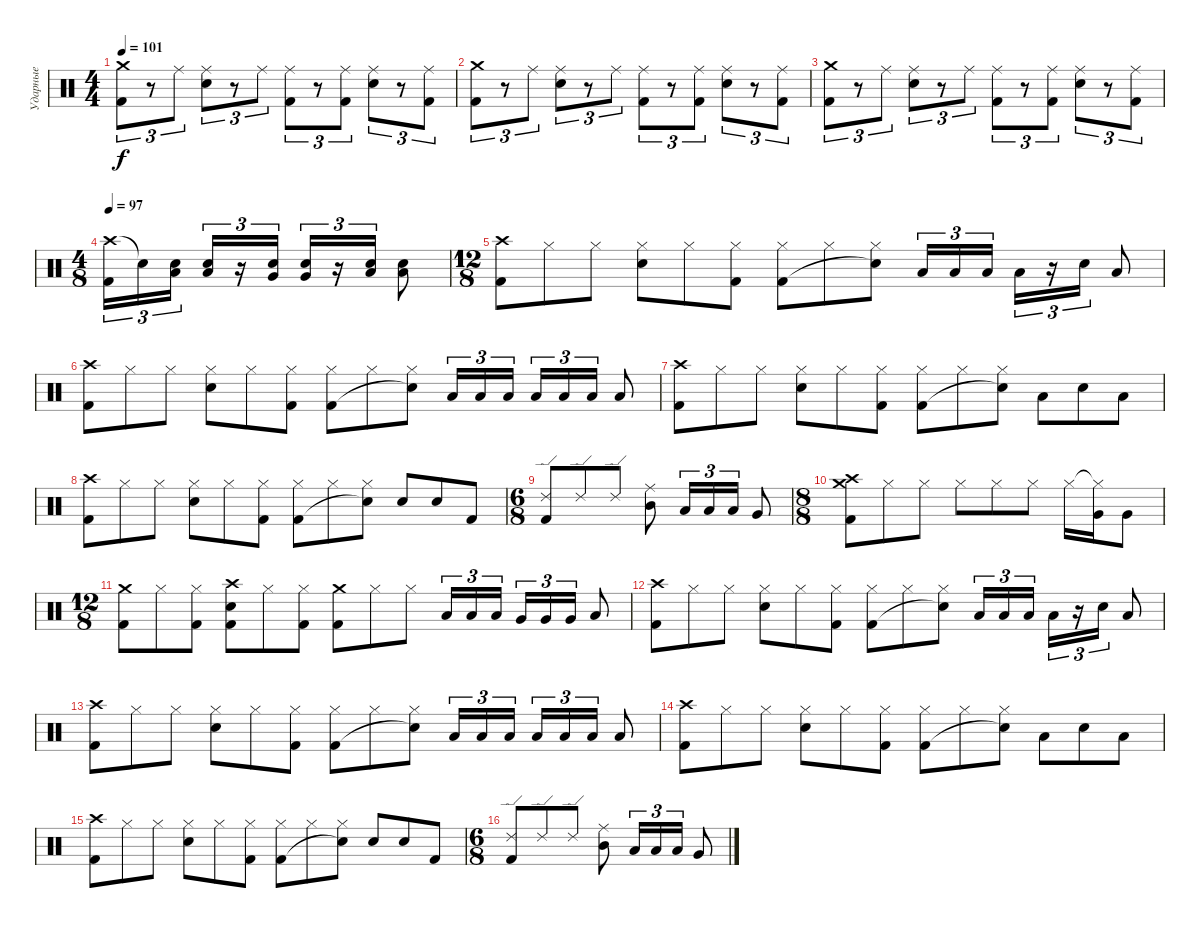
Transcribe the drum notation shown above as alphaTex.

\track ("Ударные" "Ударные") {instrument percussion}
\staff {score}
\articulation defaults
\ts (4 4)
\tempo 101
\clef neutral
\ks c
("Crash medium (hit)" "Kick (hit) 2").8{tu (3 2) dy f} r.8{tu (3 2)} "Ride (middle)".8{tu (3 2)} ("Ride (middle)" "Snare (hit) 2").8{tu (3 2)} r.8{tu (3 2)} "Ride (middle)".8{tu (3 2)} ("Ride (middle)" "Kick (hit) 2").8{tu (3 2)} r.8{tu (3 2)} ("Ride (middle)" "Kick (hit) 2").8{tu (3 2)} ("Ride (middle)" "Snare (hit) 2").8{tu (3 2)} r.8{tu (3 2)} ("Ride (middle)" "Kick (hit) 2").8{tu (3 2)} |
("Crash medium (hit)" "Kick (hit) 2").8{tu (3 2)} r.8{tu (3 2)} "Ride (middle)".8{tu (3 2)} ("Ride (middle)" "Snare (hit) 2").8{tu (3 2)} r.8{tu (3 2)} "Ride (middle)".8{tu (3 2)} ("Ride (middle)" "Kick (hit) 2").8{tu (3 2)} r.8{tu (3 2)} ("Ride (middle)" "Kick (hit) 2").8{tu (3 2)} ("Ride (middle)" "Snare (hit) 2").8{tu (3 2)} r.8{tu (3 2)} ("Ride (middle)" "Kick (hit) 2").8{tu (3 2)} |
("Crash medium (hit)" "Kick (hit) 2").8{tu (3 2)} r.8{tu (3 2)} "Ride (middle)".8{tu (3 2)} ("Ride (middle)" "Snare (hit) 2").8{tu (3 2)} r.8{tu (3 2)} "Ride (middle)".8{tu (3 2)} ("Ride (middle)" "Kick (hit) 2").8{tu (3 2)} r.8{tu (3 2)} ("Ride (middle)" "Kick (hit) 2").8{tu (3 2)} ("Ride (middle)" "Snare (hit) 2").8{tu (3 2)} r.8{tu (3 2)} ("Ride (middle)" "Kick (hit) 2").8{tu (3 2)} |
\ts (4 8)
\tempo 97
("Crash high (hit)" "Kick (hit) 2").16{tu (3 2)} "Snare (hit)"{t}.16{tu (3 2)} ("Low Tom (hit)" "Snare (hit) 2").16{tu (3 2)} ("Low Tom (hit)" "Snare (hit) 2").16{tu (3 2)} r.16{tu (3 2)} ("Very Low Tom (hit)" "Snare (hit) 2").16{tu (3 2)} ("Very Low Tom (hit)" "Snare (hit) 2").16{tu (3 2)} r.16{tu (3 2)} ("Low Floor Tom (hit)" "Snare (hit) 2").16{tu (3 2)} ("Low Floor Tom (hit)" "Snare (hit) 2").8 |
\ts (12 8)
("Crash high (hit)" "Kick (hit) 2").8 "Hi-Hat (closed)".8 "Hi-Hat (closed)".8 ("Hi-Hat (closed)" "Snare (hit) 2").8 "Hi-Hat (closed)".8 ("Hi-Hat (closed)" "Kick (hit) 2").8 ("Hi-Hat (closed)" "Kick (hit) 2").8 "Hi-Hat (closed)".8 ("Hi-Hat (closed)" "Snare (hit)"{t}).8 "Low Tom (hit)".16{tu (3 2)} "Low Tom (hit)".16{tu (3 2)} "Low Tom (hit)".16{tu (3 2)} "Low Tom (hit)".16{tu (3 2)} r.16{tu (3 2)} "Snare (hit) 2".16{tu (3 2)} "Low Tom (hit)".8 |
("Crash high (hit)" "Kick (hit) 2").8 "Hi-Hat (closed)".8 "Hi-Hat (closed)".8 ("Hi-Hat (closed)" "Snare (hit) 2").8 "Hi-Hat (closed)".8 ("Hi-Hat (closed)" "Kick (hit) 2").8 ("Hi-Hat (closed)" "Kick (hit) 2").8 "Hi-Hat (closed)".8 ("Hi-Hat (closed)" "Snare (hit)"{t}).8 "Low Tom (hit)".16{tu (3 2)} "Low Tom (hit)".16{tu (3 2)} "Low Tom (hit)".16{tu (3 2)} "Low Tom (hit)".16{tu (3 2)} "Low Tom (hit)".16{tu (3 2)} "Low Tom (hit)".16{tu (3 2)} "Low Tom (hit)".8 |
("Crash high (hit)" "Kick (hit) 2").8 "Hi-Hat (closed)".8 "Hi-Hat (closed)".8 ("Hi-Hat (closed)" "Snare (hit) 2").8 "Hi-Hat (closed)".8 ("Hi-Hat (closed)" "Kick (hit) 2").8 ("Hi-Hat (closed)" "Kick (hit) 2").8 "Hi-Hat (closed)".8 ("Hi-Hat (closed)" "Snare (hit)"{t}).8 "Low Tom (hit)".8 "Snare (hit) 2".8 "Low Tom (hit)".8 |
("Crash high (hit)" "Kick (hit) 2").8 "Hi-Hat (closed)".8 "Hi-Hat (closed)".8 ("Hi-Hat (closed)" "Snare (hit) 2").8 "Hi-Hat (closed)".8 ("Hi-Hat (closed)" "Kick (hit) 2").8 ("Hi-Hat (closed)" "Kick (hit) 2").8 "Hi-Hat (closed)".8 ("Hi-Hat (closed)" "Snare (hit)"{t}).8 "Snare (hit) 2".8 "Snare (hit) 2".8 "Kick (hit) 2".8 |
\ts (6 8)
("Ride (edge) 2" "Kick (hit) 2").8 "Ride (edge) 2".8 "Ride (edge) 2".8 ("Ride (middle)" "Mid Tom (hit)").8 "Low Tom (hit)".16{tu (3 2)} "Low Tom (hit)".16{tu (3 2)} "Low Tom (hit)".16{tu (3 2)} "Very Low Tom (hit)".8 |
\ts (8 8)
("Crash high (hit)" "Crash medium (hit)" "Kick (hit) 2").8 "Hi-Hat (closed)".8 "Hi-Hat (closed)".8 "Hi-Hat (closed)".8 "Hi-Hat (closed)".8 "Hi-Hat (closed)".8 "Hi-Hat (closed)".16 ("Hi-Hat (closed)"{t} "Very Low Tom (hit)").16 "Very Low Tom (hit)".8 |
\ts (12 8)
("Crash medium (hit)" "Kick (hit) 2").8 "Hi-Hat (closed)".8 ("Hi-Hat (closed)" "Kick (hit) 2").8 ("Crash high (hit)" "Snare (hit) 2" "Kick (hit) 2").8 "Hi-Hat (closed)".8 ("Hi-Hat (closed)" "Kick (hit) 2").8 ("Crash medium (hit)" "Kick (hit) 2").8 "Hi-Hat (closed)".8 "Hi-Hat (closed)".8 "Low Tom (hit)".16{tu (3 2)} "Low Tom (hit)".16{tu (3 2)} "Low Tom (hit)".16{tu (3 2)} "Very Low Tom (hit)".16{tu (3 2)} "Very Low Tom (hit)".16{tu (3 2)} "Very Low Tom (hit)".16{tu (3 2)} "Low Floor Tom (hit)".8 |
("Crash high (hit)" "Kick (hit) 2").8 "Hi-Hat (closed)".8 "Hi-Hat (closed)".8 ("Hi-Hat (closed)" "Snare (hit) 2").8 "Hi-Hat (closed)".8 ("Hi-Hat (closed)" "Kick (hit) 2").8 ("Hi-Hat (closed)" "Kick (hit) 2").8 "Hi-Hat (closed)".8 ("Hi-Hat (closed)" "Snare (hit)"{t}).8 "Low Tom (hit)".16{tu (3 2)} "Low Tom (hit)".16{tu (3 2)} "Low Tom (hit)".16{tu (3 2)} "Low Tom (hit)".16{tu (3 2)} r.16{tu (3 2)} "Snare (hit) 2".16{tu (3 2)} "Low Tom (hit)".8 |
("Crash high (hit)" "Kick (hit) 2").8 "Hi-Hat (closed)".8 "Hi-Hat (closed)".8 ("Hi-Hat (closed)" "Snare (hit) 2").8 "Hi-Hat (closed)".8 ("Hi-Hat (closed)" "Kick (hit) 2").8 ("Hi-Hat (closed)" "Kick (hit) 2").8 "Hi-Hat (closed)".8 ("Hi-Hat (closed)" "Snare (hit)"{t}).8 "Low Tom (hit)".16{tu (3 2)} "Low Tom (hit)".16{tu (3 2)} "Low Tom (hit)".16{tu (3 2)} "Low Tom (hit)".16{tu (3 2)} "Low Tom (hit)".16{tu (3 2)} "Low Tom (hit)".16{tu (3 2)} "Low Tom (hit)".8 |
("Crash high (hit)" "Kick (hit) 2").8 "Hi-Hat (closed)".8 "Hi-Hat (closed)".8 ("Hi-Hat (closed)" "Snare (hit) 2").8 "Hi-Hat (closed)".8 ("Hi-Hat (closed)" "Kick (hit) 2").8 ("Hi-Hat (closed)" "Kick (hit) 2").8 "Hi-Hat (closed)".8 ("Hi-Hat (closed)" "Snare (hit)"{t}).8 "Low Tom (hit)".8 "Snare (hit) 2".8 "Low Tom (hit)".8 |
("Crash high (hit)" "Kick (hit) 2").8 "Hi-Hat (closed)".8 "Hi-Hat (closed)".8 ("Hi-Hat (closed)" "Snare (hit) 2").8 "Hi-Hat (closed)".8 ("Hi-Hat (closed)" "Kick (hit) 2").8 ("Hi-Hat (closed)" "Kick (hit) 2").8 "Hi-Hat (closed)".8 ("Hi-Hat (closed)" "Snare (hit)"{t}).8 "Snare (hit) 2".8 "Snare (hit) 2".8 "Kick (hit) 2".8 |
\ts (6 8)
("Ride (edge) 2" "Kick (hit) 2").8{volume 8} "Ride (edge) 2".8 "Ride (edge) 2".8 ("Ride (middle)" "Mid Tom (hit)").8 "Low Tom (hit)".16{tu (3 2)} "Low Tom (hit)".16{tu (3 2)} "Low Tom (hit)".16{tu (3 2)} "Very Low Tom (hit)".8
